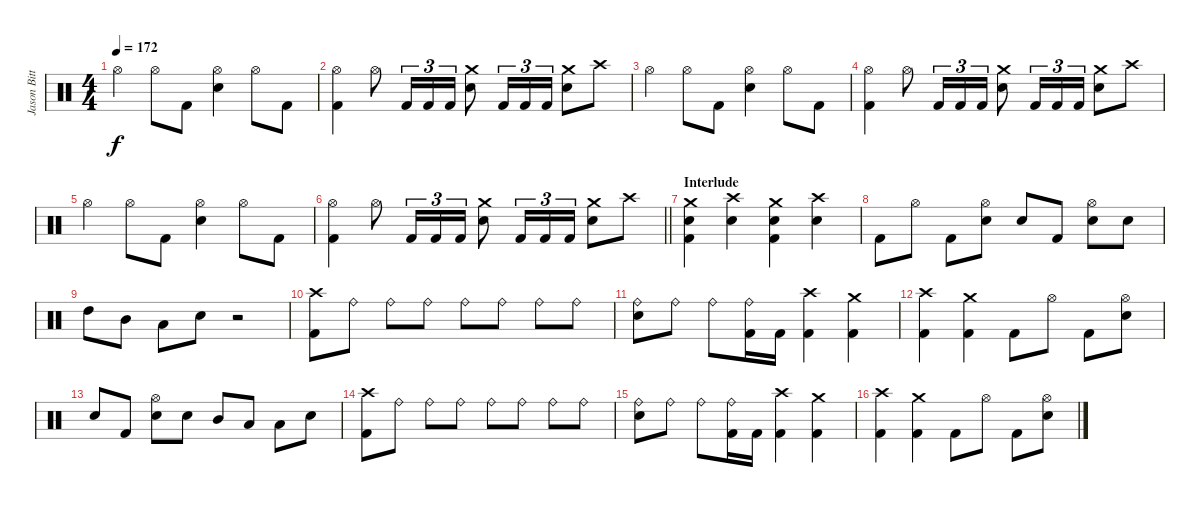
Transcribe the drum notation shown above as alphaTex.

\track ("Jason Bittner" "Jason Bitt") {instrument percussion}
\staff {score}
\articulation defaults
\ts (4 4)
\tempo 172
\clef neutral
\ks c "Hi-Hat (open)".4{dy f} "Hi-Hat (open)".8 "Kick (hit) 2".8
("Hi-Hat (open)" "Electric Snare (hit)").4 "Hi-Hat (open)".8 "Kick (hit) 2".8 |
("Hi-Hat (open)" "Kick (hit) 2").4 "Hi-Hat (open)".8 "Kick (hit) 2".16{tu (3 2)} "Kick (hit) 2".16{tu (3 2)} "Kick (hit) 2".16{tu (3 2)} ("Crash medium (hit)" "Electric Snare (hit)").8 "Kick (hit) 2".16{tu (3 2)} "Kick (hit) 2".16{tu (3 2)} "Kick (hit) 2".16{tu (3 2)} ("Crash medium (hit)" "Electric Snare (hit)").8 "Crash high (hit)".8 |
"Hi-Hat (open)".4 "Hi-Hat (open)".8 "Kick (hit) 2".8 ("Hi-Hat (open)" "Electric Snare (hit)").4 "Hi-Hat (open)".8 "Kick (hit) 2".8 |
("Hi-Hat (open)" "Kick (hit) 2").4 "Hi-Hat (open)".8 "Kick (hit) 2".16{tu (3 2)} "Kick (hit) 2".16{tu (3 2)} "Kick (hit) 2".16{tu (3 2)} ("Crash medium (hit)" "Electric Snare (hit)").8 "Kick (hit) 2".16{tu (3 2)} "Kick (hit) 2".16{tu (3 2)} "Kick (hit) 2".16{tu (3 2)} ("Crash medium (hit)" "Electric Snare (hit)").8 "Crash high (hit)".8 |
"Hi-Hat (open)".4 "Hi-Hat (open)".8 "Kick (hit) 2".8 ("Hi-Hat (open)" "Electric Snare (hit)").4 "Hi-Hat (open)".8 "Kick (hit) 2".8 |
\barLineRight lightlight
("Hi-Hat (open)" "Kick (hit) 2").4 "Hi-Hat (open)".8 "Kick (hit) 2".16{tu (3 2)} "Kick (hit) 2".16{tu (3 2)} "Kick (hit) 2".16{tu (3 2)} ("Crash medium (hit)" "Electric Snare (hit)").8 "Kick (hit) 2".16{tu (3 2)} "Kick (hit) 2".16{tu (3 2)} "Kick (hit) 2".16{tu (3 2)} ("Crash medium (hit)" "Electric Snare (hit)").8 "Crash high (hit)".8 |
\section ("" "Interlude")
("Crash medium (hit)" "Electric Snare (hit)" "Kick (hit) 2").4 ("Crash high (hit)" "Electric Snare (hit)").4 ("Crash medium (hit)" "Electric Snare (hit)" "Kick (hit) 2").4 ("Crash high (hit)" "Electric Snare (hit)").4 |
"Kick (hit) 2".8 "Hi-Hat (open)".8 "Kick (hit) 2".8 ("Hi-Hat (open)" "Electric Snare (hit)").8 "Electric Snare (hit)".8 "Kick (hit) 2".8 ("Hi-Hat (open)" "Electric Snare (hit)").8 "Electric Snare (hit)".8 |
"High Tom (hit)".8 "Mid Tom (hit)".8 "Low Floor Tom (hit)".8 "Electric Snare (hit)".8 r.2 |
("Crash high (hit)" "Kick (hit) 2").8 "Ride (bell)".8 "Ride (bell)".8 "Ride (bell)".8 "Ride (bell)".8 "Ride (bell)".8 "Ride (bell)".8 "Ride (bell)".8 |
("Ride (bell)" "Electric Snare (hit)").8 "Ride (bell)".8 "Ride (bell)".8 ("Ride (bell)" "Kick (hit) 2").16 "Kick (hit) 2".16 ("Crash high (hit)" "Kick (hit) 2").4 ("Crash medium (hit)" "Kick (hit) 2").4 |
("Crash high (hit)" "Kick (hit) 2").4 ("Crash medium (hit)" "Kick (hit) 2").4 "Kick (hit) 2".8 "Hi-Hat (open)".8 "Kick (hit) 2".8 ("Hi-Hat (open)" "Electric Snare (hit)").8 |
"Electric Snare (hit)".8 "Kick (hit) 2".8 ("Hi-Hat (open)" "Electric Snare (hit)").8 "Electric Snare (hit)".8 "Mid Tom (hit)".8 "Low Tom (hit)".8 "Low Floor Tom (hit)".8 "Electric Snare (hit)".8 |
("Crash high (hit)" "Kick (hit) 2").8 "Ride (bell)".8 "Ride (bell)".8 "Ride (bell)".8 "Ride (bell)".8 "Ride (bell)".8 "Ride (bell)".8 "Ride (bell)".8 |
("Ride (bell)" "Electric Snare (hit)").8 "Ride (bell)".8 "Ride (bell)".8 ("Ride (bell)" "Kick (hit) 2").16 "Kick (hit) 2".16 ("Crash high (hit)" "Kick (hit) 2").4 ("Crash medium (hit)" "Kick (hit) 2").4 |
("Crash high (hit)" "Kick (hit) 2").4 ("Crash medium (hit)" "Kick (hit) 2").4 "Kick (hit) 2".8 "Hi-Hat (open)".8 "Kick (hit) 2".8 ("Hi-Hat (open)" "Electric Snare (hit)").8
